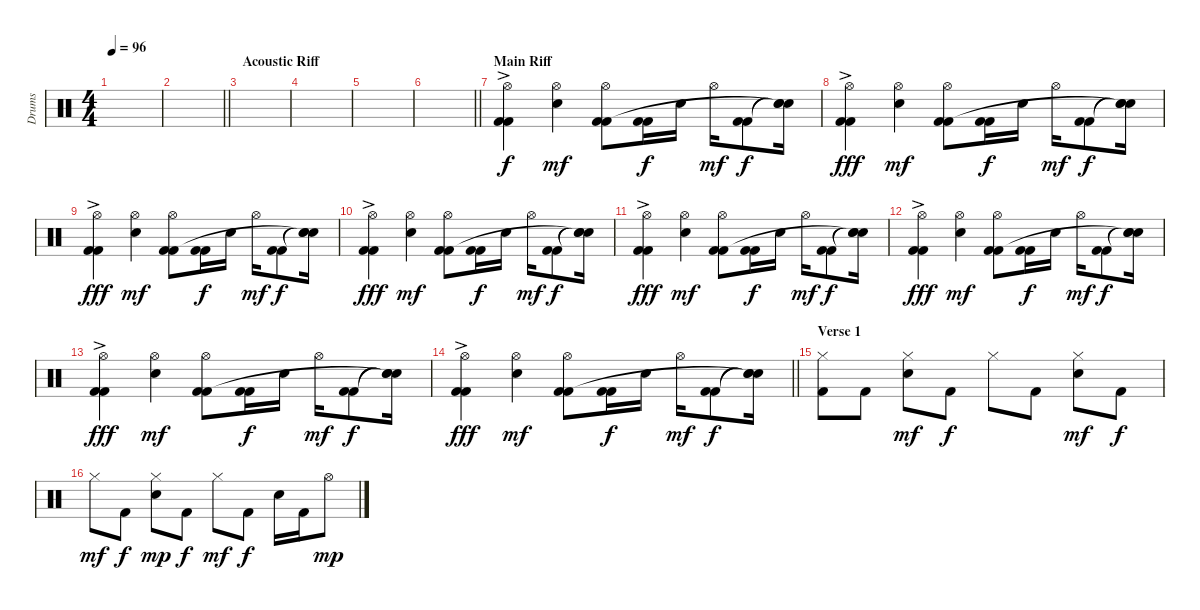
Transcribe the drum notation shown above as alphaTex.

\track ("Drums" "Drums") {instrument percussion}
\staff {score}
\articulation defaults
\ts (4 4)
\tempo 96
\clef neutral
\ks c
|
\barLineRight lightlight
|
\section ("" "Acoustic Riff")
|
|
|
\barLineRight lightlight
|
\section ("" "Main Riff")
("Hi-Hat (open)"{ac} "Kick (hit) 2" "Kick (hit) 2").4 ("Hi-Hat (open)" "Snare (hit) 2").4{dy mf} ("Hi-Hat (open)" "Kick (hit) 2" "Kick (hit) 2").8 ("Kick (hit) 2" "Kick (hit) 2").16{dy f} "Snare (hit) 2".16 "Hi-Hat (open)".16{dy mf} ("Kick (hit) 2" "Kick (hit) 2").8{dy f} ("Snare (hit)"{t} "Snare (hit)"{t} "Snare (hit)"{t}).16 |
("Hi-Hat (open)"{ac} "Kick (hit) 2" "Kick (hit) 2").4{dy fff} ("Hi-Hat (open)" "Snare (hit) 2").4{dy mf} ("Hi-Hat (open)" "Kick (hit) 2" "Kick (hit) 2").8 ("Kick (hit) 2" "Kick (hit) 2").16{dy f} "Snare (hit) 2".16 "Hi-Hat (open)".16{dy mf} ("Kick (hit) 2" "Kick (hit) 2").8{dy f} ("Snare (hit)"{t} "Snare (hit)"{t} "Snare (hit)"{t}).16 |
("Hi-Hat (open)"{ac} "Kick (hit) 2" "Kick (hit) 2").4{dy fff} ("Hi-Hat (open)" "Snare (hit) 2").4{dy mf} ("Hi-Hat (open)" "Kick (hit) 2" "Kick (hit) 2").8 ("Kick (hit) 2" "Kick (hit) 2").16{dy f} "Snare (hit) 2".16 "Hi-Hat (open)".16{dy mf} ("Kick (hit) 2" "Kick (hit) 2").8{dy f} ("Snare (hit)"{t} "Snare (hit)"{t} "Snare (hit)"{t}).16 |
("Hi-Hat (open)"{ac} "Kick (hit) 2" "Kick (hit) 2").4{dy fff} ("Hi-Hat (open)" "Snare (hit) 2").4{dy mf} ("Hi-Hat (open)" "Kick (hit) 2" "Kick (hit) 2").8 ("Kick (hit) 2" "Kick (hit) 2").16{dy f} "Snare (hit) 2".16 "Hi-Hat (open)".16{dy mf} ("Kick (hit) 2" "Kick (hit) 2").8{dy f} ("Snare (hit)"{t} "Snare (hit)"{t} "Snare (hit)"{t}).16 |
("Hi-Hat (open)"{ac} "Kick (hit) 2" "Kick (hit) 2").4{dy fff} ("Hi-Hat (open)" "Snare (hit) 2").4{dy mf} ("Hi-Hat (open)" "Kick (hit) 2" "Kick (hit) 2").8 ("Kick (hit) 2" "Kick (hit) 2").16{dy f} "Snare (hit) 2".16 "Hi-Hat (open)".16{dy mf} ("Kick (hit) 2" "Kick (hit) 2").8{dy f} ("Snare (hit)"{t} "Snare (hit)"{t} "Snare (hit)"{t}).16 |
("Hi-Hat (open)"{ac} "Kick (hit) 2" "Kick (hit) 2").4{dy fff} ("Hi-Hat (open)" "Snare (hit) 2").4{dy mf} ("Hi-Hat (open)" "Kick (hit) 2" "Kick (hit) 2").8 ("Kick (hit) 2" "Kick (hit) 2").16{dy f} "Snare (hit) 2".16 "Hi-Hat (open)".16{dy mf} ("Kick (hit) 2" "Kick (hit) 2").8{dy f} ("Snare (hit)"{t} "Snare (hit)"{t} "Snare (hit)"{t}).16 |
("Hi-Hat (open)"{ac} "Kick (hit) 2" "Kick (hit) 2").4{dy fff} ("Hi-Hat (open)" "Snare (hit) 2").4{dy mf} ("Hi-Hat (open)" "Kick (hit) 2" "Kick (hit) 2").8 ("Kick (hit) 2" "Kick (hit) 2").16{dy f} "Snare (hit) 2".16 "Hi-Hat (open)".16{dy mf} ("Kick (hit) 2" "Kick (hit) 2").8{dy f} ("Snare (hit)"{t} "Snare (hit)"{t} "Snare (hit)"{t}).16 |
\barLineRight lightlight
("Hi-Hat (open)"{ac} "Kick (hit) 2" "Kick (hit) 2").4{dy fff} ("Hi-Hat (open)" "Snare (hit) 2").4{dy mf} ("Hi-Hat (open)" "Kick (hit) 2" "Kick (hit) 2").8 ("Kick (hit) 2" "Kick (hit) 2").16{dy f} "Snare (hit) 2".16 "Hi-Hat (open)".16{dy mf} ("Kick (hit) 2" "Kick (hit) 2").8{dy f} ("Snare (hit)"{t} "Snare (hit)"{t} "Snare (hit)"{t}).16 |
\section ("" "Verse 1")
("Hi-Hat (closed)" "Kick (hit) 2").8 "Kick (hit) 2".8 ("Hi-Hat (closed)" "Electric Snare (hit)").8{dy mf} "Kick (hit) 2".8{dy f} "Hi-Hat (closed)".8 "Kick (hit) 2".8 ("Hi-Hat (closed)" "Electric Snare (hit)").8{dy mf} "Kick (hit) 2".8{dy f} |
"Hi-Hat (closed)".8{dy mf} "Kick (hit) 2".8{dy f} ("Hi-Hat (closed)" "Electric Snare (hit)").8{dy mp} "Kick (hit) 2".8{dy f} "Hi-Hat (closed)".8{dy mf} "Kick (hit) 2".8{dy f} "Electric Snare (hit)".16 "Kick (hit) 2".16 "Hi-Hat (open)".8{dy mp}
